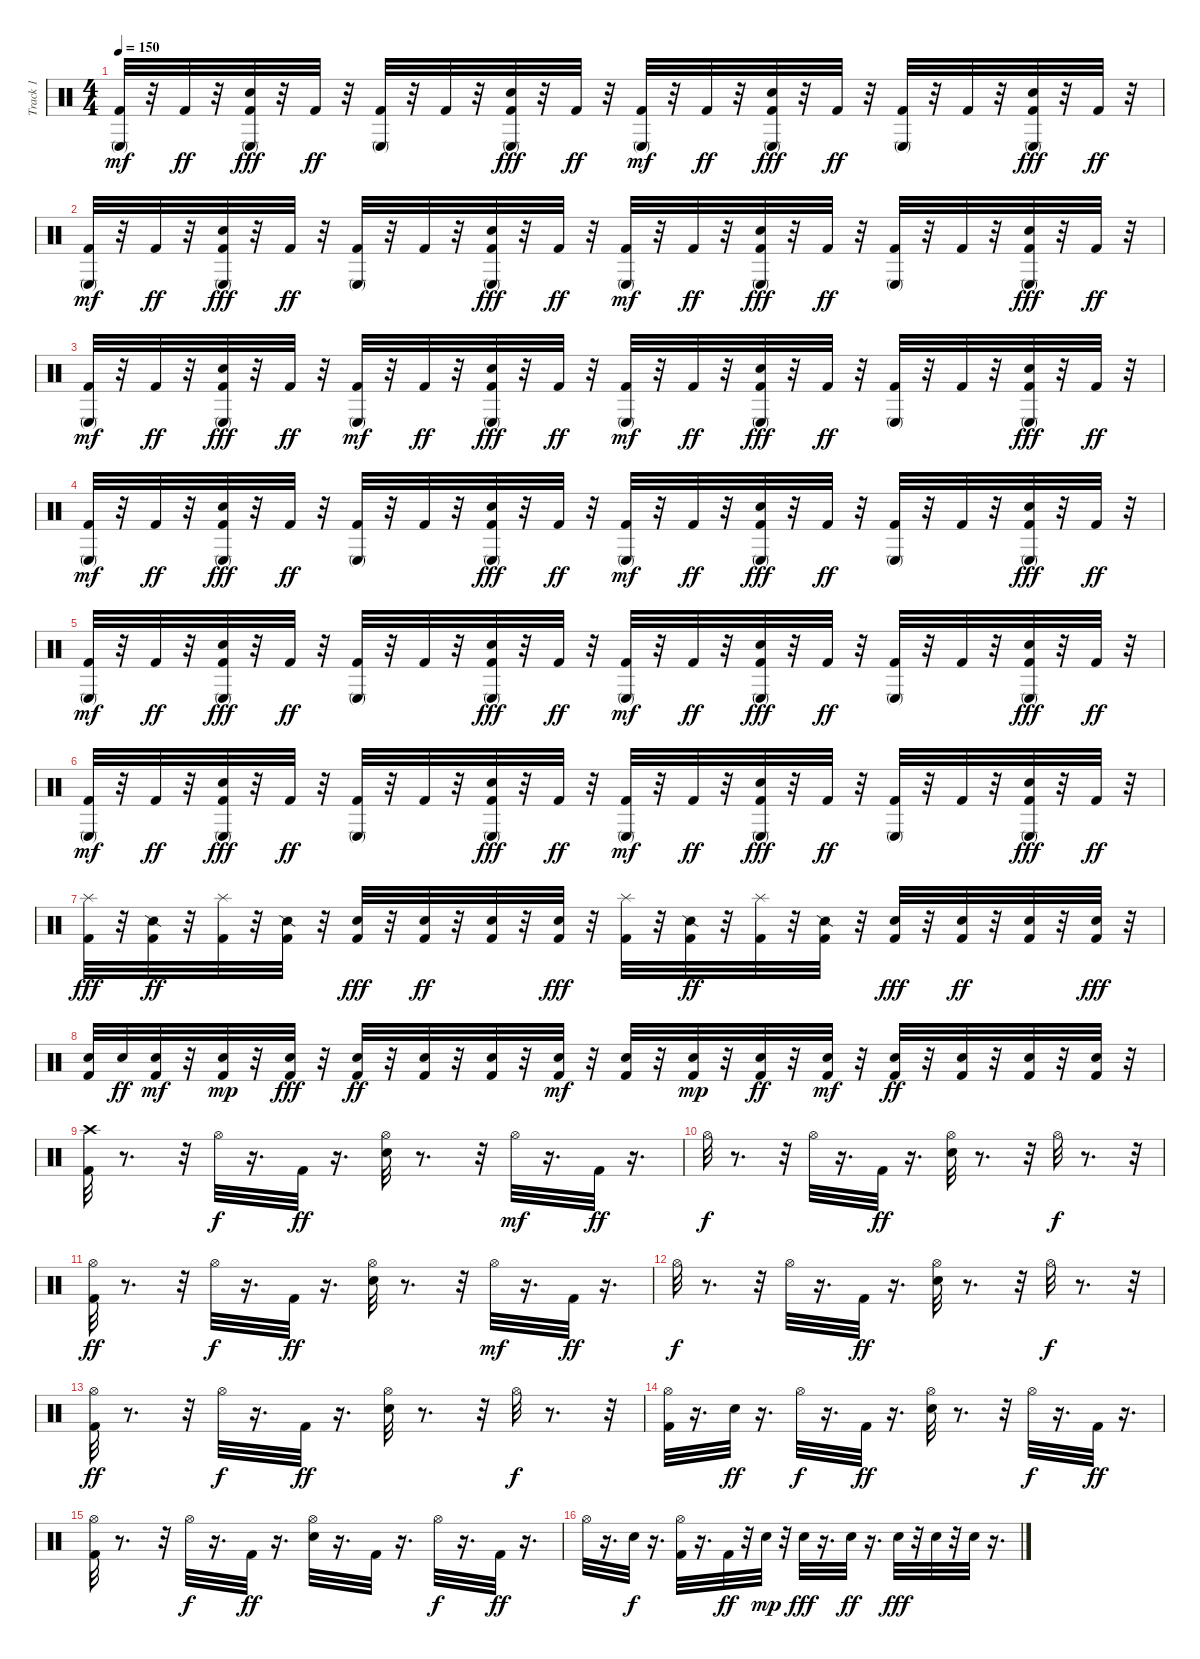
\track ("Track 1" "Track 1") {instrument percussion}
\staff {score}
\articulation defaults
\ts (4 4)
\tempo 150
\clef neutral
\ks c
("Kick (hit) 2" "Conga low (mute)").32{dy mf} r.32 "Kick (hit) 2".32{dy ff} r.32 ("Kick (hit) 2" "Conga low (mute)" "Snare (hit) 2").32{dy fff} r.32 "Kick (hit) 2".32{dy ff} r.32 ("Conga low (mute)" "Kick (hit) 2").32 r.32 "Kick (hit) 2".32 r.32 ("Kick (hit) 2" "Conga low (mute)" "Snare (hit) 2").32{dy fff} r.32 "Kick (hit) 2".32{dy ff} r.32 ("Kick (hit) 2" "Conga low (mute)").32{dy mf} r.32 "Kick (hit) 2".32{dy ff} r.32 ("Kick (hit) 2" "Snare (hit) 2" "Conga low (mute)").32{dy fff} r.32 "Kick (hit) 2".32{dy ff} r.32 ("Conga low (mute)" "Kick (hit) 2").32 r.32 "Kick (hit) 2".32 r.32 ("Kick (hit) 2" "Conga low (mute)" "Snare (hit) 2").32{dy fff} r.32 "Kick (hit) 2".32{dy ff} r.32 |
("Kick (hit) 2" "Conga low (mute)").32{dy mf} r.32 "Kick (hit) 2".32{dy ff} r.32 ("Kick (hit) 2" "Snare (hit) 2" "Conga low (mute)").32{dy fff} r.32 "Kick (hit) 2".32{dy ff} r.32 ("Conga low (mute)" "Kick (hit) 2").32 r.32 "Kick (hit) 2".32 r.32 ("Kick (hit) 2" "Conga low (mute)" "Snare (hit) 2").32{dy fff} r.32 "Kick (hit) 2".32{dy ff} r.32 ("Kick (hit) 2" "Conga low (mute)").32{dy mf} r.32 "Kick (hit) 2".32{dy ff} r.32 ("Kick (hit) 2" "Snare (hit) 2" "Conga low (mute)").32{dy fff} r.32 "Kick (hit) 2".32{dy ff} r.32 ("Conga low (mute)" "Kick (hit) 2").32 r.32 "Kick (hit) 2".32 r.32 ("Kick (hit) 2" "Snare (hit) 2" "Conga low (mute)").32{dy fff} r.32 "Kick (hit) 2".32{dy ff} r.32 |
("Kick (hit) 2" "Conga low (mute)").32{dy mf} r.32 "Kick (hit) 2".32{dy ff} r.32 ("Kick (hit) 2" "Snare (hit) 2" "Conga low (mute)").32{dy fff} r.32 "Kick (hit) 2".32{dy ff} r.32 ("Kick (hit) 2" "Conga low (mute)").32{dy mf} r.32 "Kick (hit) 2".32{dy ff} r.32 ("Kick (hit) 2" "Snare (hit) 2" "Conga low (mute)").32{dy fff} r.32 "Kick (hit) 2".32{dy ff} r.32 ("Kick (hit) 2" "Conga low (mute)").32{dy mf} r.32 "Kick (hit) 2".32{dy ff} r.32 ("Snare (hit) 2" "Kick (hit) 2" "Conga low (mute)").32{dy fff} r.32 "Kick (hit) 2".32{dy ff} r.32 ("Conga low (mute)" "Kick (hit) 2").32 r.32 "Kick (hit) 2".32 r.32 ("Kick (hit) 2" "Snare (hit) 2" "Conga low (mute)").32{dy fff} r.32 "Kick (hit) 2".32{dy ff} r.32 |
("Kick (hit) 2" "Conga low (mute)").32{dy mf} r.32 "Kick (hit) 2".32{dy ff} r.32 ("Kick (hit) 2" "Conga low (mute)" "Snare (hit) 2").32{dy fff} r.32 "Kick (hit) 2".32{dy ff} r.32 ("Conga low (mute)" "Kick (hit) 2").32 r.32 "Kick (hit) 2".32 r.32 ("Kick (hit) 2" "Conga low (mute)" "Snare (hit) 2").32{dy fff} r.32 "Kick (hit) 2".32{dy ff} r.32 ("Kick (hit) 2" "Conga low (mute)").32{dy mf} r.32 "Kick (hit) 2".32{dy ff} r.32 ("Kick (hit) 2" "Snare (hit) 2" "Conga low (mute)").32{dy fff} r.32 "Kick (hit) 2".32{dy ff} r.32 ("Conga low (mute)" "Kick (hit) 2").32 r.32 "Kick (hit) 2".32 r.32 ("Kick (hit) 2" "Conga low (mute)" "Snare (hit) 2").32{dy fff} r.32 "Kick (hit) 2".32{dy ff} r.32 |
("Kick (hit) 2" "Conga low (mute)").32{dy mf} r.32 "Kick (hit) 2".32{dy ff} r.32 ("Kick (hit) 2" "Conga low (mute)" "Snare (hit) 2").32{dy fff} r.32 "Kick (hit) 2".32{dy ff} r.32 ("Conga low (mute)" "Kick (hit) 2").32 r.32 "Kick (hit) 2".32 r.32 ("Kick (hit) 2" "Conga low (mute)" "Snare (hit) 2").32{dy fff} r.32 "Kick (hit) 2".32{dy ff} r.32 ("Kick (hit) 2" "Conga low (mute)").32{dy mf} r.32 "Kick (hit) 2".32{dy ff} r.32 ("Kick (hit) 2" "Snare (hit) 2" "Conga low (mute)").32{dy fff} r.32 "Kick (hit) 2".32{dy ff} r.32 ("Conga low (mute)" "Kick (hit) 2").32 r.32 "Kick (hit) 2".32 r.32 ("Kick (hit) 2" "Conga low (mute)" "Snare (hit) 2").32{dy fff} r.32 "Kick (hit) 2".32{dy ff} r.32 |
("Kick (hit) 2" "Conga low (mute)").32{dy mf} r.32 "Kick (hit) 2".32{dy ff} r.32 ("Kick (hit) 2" "Snare (hit) 2" "Conga low (mute)").32{dy fff} r.32 "Kick (hit) 2".32{dy ff} r.32 ("Conga low (mute)" "Kick (hit) 2").32 r.32 "Kick (hit) 2".32 r.32 ("Kick (hit) 2" "Conga low (mute)" "Snare (hit) 2").32{dy fff} r.32 "Kick (hit) 2".32{dy ff} r.32 ("Kick (hit) 2" "Conga low (mute)").32{dy mf} r.32 "Kick (hit) 2".32{dy ff} r.32 ("Kick (hit) 2" "Snare (hit) 2" "Conga low (mute)").32{dy fff} r.32 "Kick (hit) 2".32{dy ff} r.32 ("Conga low (mute)" "Kick (hit) 2").32 r.32 "Kick (hit) 2".32 r.32 ("Kick (hit) 2" "Snare (hit) 2" "Conga low (mute)").32{dy fff} r.32 "Kick (hit) 2".32{dy ff} r.32 |
("Kick (hit) 2" "Splash (hit)").32{dy fff} r.32 ("Snare (side stick) 2" "Kick (hit) 2").32{dy ff} r.32 ("Kick (hit) 2" "Splash (hit)").32 r.32 ("Kick (hit) 2" "Snare (side stick) 2").32 r.32 ("Kick (hit) 2" "Snare (hit) 2").32{dy fff} r.32 ("Kick (hit) 2" "Snare (hit) 2").32{dy ff} r.32 ("Kick (hit) 2" "Snare (hit) 2").32 r.32 ("Kick (hit) 2" "Snare (hit) 2").32{dy fff} r.32 ("Kick (hit) 2" "Splash (hit)").32 r.32 ("Snare (side stick) 2" "Kick (hit) 2").32{dy ff} r.32 ("Kick (hit) 2" "Splash (hit)").32 r.32 ("Kick (hit) 2" "Snare (side stick) 2").32 r.32 ("Snare (hit) 2" "Kick (hit) 2").32{dy fff} r.32 ("Snare (hit) 2" "Kick (hit) 2").32{dy ff} r.32 ("Kick (hit) 2" "Snare (hit) 2").32 r.32 ("Kick (hit) 2" "Snare (hit) 2").32{dy fff} r.32 |
("Kick (hit) 2" "Snare (hit) 2").32 "Snare (hit) 2".32{dy ff} ("Kick (hit) 2" "Snare (hit) 2").32{dy mf} r.32 ("Kick (hit) 2" "Snare (hit) 2").32{dy mp} r.32 ("Kick (hit) 2" "Snare (hit) 2").32{dy fff} r.32 ("Snare (hit) 2" "Kick (hit) 2").32{dy ff} r.32 ("Kick (hit) 2" "Snare (hit) 2").32 r.32 ("Snare (hit) 2" "Kick (hit) 2").32 r.32 ("Kick (hit) 2" "Snare (hit) 2").32{dy mf} r.32 ("Kick (hit) 2" "Snare (hit) 2").32 r.32 ("Kick (hit) 2" "Snare (hit) 2").32{dy mp} r.32 ("Snare (hit) 2" "Kick (hit) 2").32{dy ff} r.32 ("Kick (hit) 2" "Snare (hit) 2").32{dy mf} r.32 ("Kick (hit) 2" "Snare (hit) 2").32{dy ff} r.32 ("Snare (hit) 2" "Kick (hit) 2").32 r.32 ("Snare (hit) 2" "Kick (hit) 2").32 r.32 ("Snare (hit) 2" "Kick (hit) 2").32 r.32 |
("Crash high (hit)" "Kick (hit) 2").32 r.8{d} r.32 "Hi-Hat (open)".32{dy f} r.16{d} "Kick (hit) 2".32{dy ff} r.16{d} ("Hi-Hat (open)" "Snare (hit) 2").32 r.8{d} r.32 "Hi-Hat (open)".32{dy mf} r.16{d} "Kick (hit) 2".32{dy ff} r.16{d} |
"Hi-Hat (open)".32{dy f} r.8{d} r.32 "Hi-Hat (open)".32 r.16{d} "Kick (hit) 2".32{dy ff} r.16{d} ("Hi-Hat (open)" "Snare (hit) 2").32 r.8{d} r.32 "Hi-Hat (open)".32{dy f} r.8{d} r.32 |
("Hi-Hat (open)" "Kick (hit) 2").32{dy ff} r.8{d} r.32 "Hi-Hat (open)".32{dy f} r.16{d} "Kick (hit) 2".32{dy ff} r.16{d} ("Hi-Hat (open)" "Snare (hit) 2").32 r.8{d} r.32 "Hi-Hat (open)".32{dy mf} r.16{d} "Kick (hit) 2".32{dy ff} r.16{d} |
"Hi-Hat (open)".32{dy f} r.8{d} r.32 "Hi-Hat (open)".32 r.16{d} "Kick (hit) 2".32{dy ff} r.16{d} ("Hi-Hat (open)" "Snare (hit) 2").32 r.8{d} r.32 "Hi-Hat (open)".32{dy f} r.8{d} r.32 |
("Hi-Hat (open)" "Kick (hit) 2").32{dy ff} r.8{d} r.32 "Hi-Hat (open)".32{dy f} r.16{d} "Kick (hit) 2".32{dy ff} r.16{d} ("Hi-Hat (open)" "Snare (hit) 2").32 r.8{d} r.32 "Hi-Hat (open)".32{dy f} r.8{d} r.32 |
("Hi-Hat (open)" "Kick (hit) 2").32 r.16{d} "Snare (hit) 2".32{dy ff} r.16{d} "Hi-Hat (open)".32{dy f} r.16{d} "Kick (hit) 2".32{dy ff} r.16{d} ("Snare (hit) 2" "Hi-Hat (open)").32 r.8{d} r.32 "Hi-Hat (open)".32{dy f} r.16{d} "Kick (hit) 2".32{dy ff} r.16{d} |
("Hi-Hat (open)" "Kick (hit) 2").32 r.8{d} r.32 "Hi-Hat (open)".32{dy f} r.16{d} "Kick (hit) 2".32{dy ff} r.16{d} ("Hi-Hat (open)" "Snare (hit) 2").32 r.16{d} "Kick (hit) 2".32 r.16{d} "Hi-Hat (open)".32{dy f} r.16{d} "Kick (hit) 2".32{dy ff} r.16{d} |
"Hi-Hat (open)".32 r.16{d} "Snare (hit) 2".32{dy f} r.16{d} ("Kick (hit) 2" "Hi-Hat (open)").32 r.16{d} "Kick (hit) 2".32{dy ff} r.32 "Snare (hit) 2".32{dy mp} r.32 "Electric Snare (hit)".32{dy fff} r.16{d} "Snare (hit) 2".32{dy ff} r.16{d} "Electric Snare (hit)".32{dy fff} r.32 "Snare (hit) 2".32 r.32 "Snare (hit) 2".32 r.16{d}
